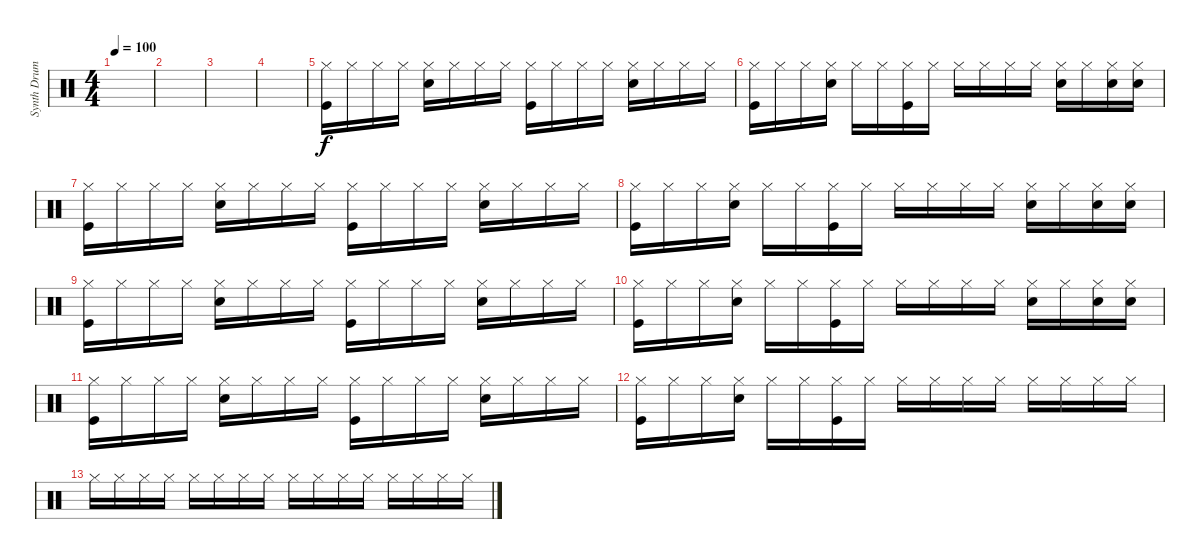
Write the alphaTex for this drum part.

\track ("Synth Drums - John F" "Synth Drum") {instrument percussion}
\staff {score}
\articulation defaults
\ts (4 4)
\tempo 100
\clef neutral
\ks c
|
|
|
|
("Hi-Hat (closed)" "Kick (hit)").16{dy f} "Hi-Hat (closed)".16 "Hi-Hat (closed)".16 "Hi-Hat (closed)".16 ("Hi-Hat (closed)" "Snare (hit) 2").16 "Hi-Hat (closed)".16 "Hi-Hat (closed)".16 "Hi-Hat (closed)".16 ("Hi-Hat (closed)" "Kick (hit)").16 "Hi-Hat (closed)".16 "Hi-Hat (closed)".16 "Hi-Hat (closed)".16 ("Hi-Hat (closed)" "Snare (hit) 2").16 "Hi-Hat (closed)".16 "Hi-Hat (closed)".16 "Hi-Hat (closed)".16 |
("Hi-Hat (closed)" "Kick (hit)").16 "Hi-Hat (closed)".16 "Hi-Hat (closed)".16 ("Hi-Hat (closed)" "Snare (hit) 2").16 "Hi-Hat (closed)".16 "Hi-Hat (closed)".16 ("Hi-Hat (closed)" "Kick (hit)").16 "Hi-Hat (closed)".16 "Hi-Hat (closed)".16 "Hi-Hat (closed)".16 "Hi-Hat (closed)".16 "Hi-Hat (closed)".16 ("Hi-Hat (closed)" "Snare (hit) 2").16 "Hi-Hat (closed)".16 ("Hi-Hat (closed)" "Snare (hit) 2").16 ("Hi-Hat (closed)" "Snare (hit) 2").16 |
("Hi-Hat (closed)" "Kick (hit)").16 "Hi-Hat (closed)".16 "Hi-Hat (closed)".16 "Hi-Hat (closed)".16 ("Hi-Hat (closed)" "Snare (hit) 2").16 "Hi-Hat (closed)".16 "Hi-Hat (closed)".16 "Hi-Hat (closed)".16 ("Hi-Hat (closed)" "Kick (hit)").16 "Hi-Hat (closed)".16 "Hi-Hat (closed)".16 "Hi-Hat (closed)".16 ("Hi-Hat (closed)" "Snare (hit) 2").16 "Hi-Hat (closed)".16 "Hi-Hat (closed)".16 "Hi-Hat (closed)".16 |
("Hi-Hat (closed)" "Kick (hit)").16 "Hi-Hat (closed)".16 "Hi-Hat (closed)".16 ("Hi-Hat (closed)" "Snare (hit) 2").16 "Hi-Hat (closed)".16 "Hi-Hat (closed)".16 ("Hi-Hat (closed)" "Kick (hit)").16 "Hi-Hat (closed)".16 "Hi-Hat (closed)".16 "Hi-Hat (closed)".16 "Hi-Hat (closed)".16 "Hi-Hat (closed)".16 ("Hi-Hat (closed)" "Snare (hit) 2").16 "Hi-Hat (closed)".16 ("Hi-Hat (closed)" "Snare (hit) 2").16 ("Hi-Hat (closed)" "Snare (hit) 2").16 |
("Hi-Hat (closed)" "Kick (hit)").16 "Hi-Hat (closed)".16 "Hi-Hat (closed)".16 "Hi-Hat (closed)".16 ("Hi-Hat (closed)" "Snare (hit) 2").16 "Hi-Hat (closed)".16 "Hi-Hat (closed)".16 "Hi-Hat (closed)".16 ("Hi-Hat (closed)" "Kick (hit)").16 "Hi-Hat (closed)".16 "Hi-Hat (closed)".16 "Hi-Hat (closed)".16 ("Hi-Hat (closed)" "Snare (hit) 2").16 "Hi-Hat (closed)".16 "Hi-Hat (closed)".16 "Hi-Hat (closed)".16 |
("Hi-Hat (closed)" "Kick (hit)").16 "Hi-Hat (closed)".16 "Hi-Hat (closed)".16 ("Hi-Hat (closed)" "Snare (hit) 2").16 "Hi-Hat (closed)".16 "Hi-Hat (closed)".16 ("Hi-Hat (closed)" "Kick (hit)").16 "Hi-Hat (closed)".16 "Hi-Hat (closed)".16 "Hi-Hat (closed)".16 "Hi-Hat (closed)".16 "Hi-Hat (closed)".16 ("Hi-Hat (closed)" "Snare (hit) 2").16 "Hi-Hat (closed)".16 ("Hi-Hat (closed)" "Snare (hit) 2").16 ("Hi-Hat (closed)" "Snare (hit) 2").16 |
("Hi-Hat (closed)" "Kick (hit)").16 "Hi-Hat (closed)".16 "Hi-Hat (closed)".16 "Hi-Hat (closed)".16 ("Hi-Hat (closed)" "Snare (hit) 2").16 "Hi-Hat (closed)".16 "Hi-Hat (closed)".16 "Hi-Hat (closed)".16 ("Hi-Hat (closed)" "Kick (hit)").16 "Hi-Hat (closed)".16 "Hi-Hat (closed)".16 "Hi-Hat (closed)".16 ("Hi-Hat (closed)" "Snare (hit) 2").16 "Hi-Hat (closed)".16 "Hi-Hat (closed)".16 "Hi-Hat (closed)".16 |
("Hi-Hat (closed)" "Kick (hit)").16 "Hi-Hat (closed)".16 "Hi-Hat (closed)".16 ("Hi-Hat (closed)" "Snare (hit) 2").16 "Hi-Hat (closed)".16 "Hi-Hat (closed)".16 ("Hi-Hat (closed)" "Kick (hit)").16 "Hi-Hat (closed)".16 "Hi-Hat (closed)".16 "Hi-Hat (closed)".16 "Hi-Hat (closed)".16 "Hi-Hat (closed)".16 "Hi-Hat (closed)".16 "Hi-Hat (closed)".16 "Hi-Hat (closed)".16 "Hi-Hat (closed)".16 |
"Hi-Hat (closed)".16{volume 0} "Hi-Hat (closed)".16 "Hi-Hat (closed)".16 "Hi-Hat (closed)".16 "Hi-Hat (closed)".16 "Hi-Hat (closed)".16 "Hi-Hat (closed)".16 "Hi-Hat (closed)".16 "Hi-Hat (closed)".16 "Hi-Hat (closed)".16 "Hi-Hat (closed)".16 "Hi-Hat (closed)".16 "Hi-Hat (closed)".16 "Hi-Hat (closed)".16 "Hi-Hat (closed)".16 "Hi-Hat (closed)".16
